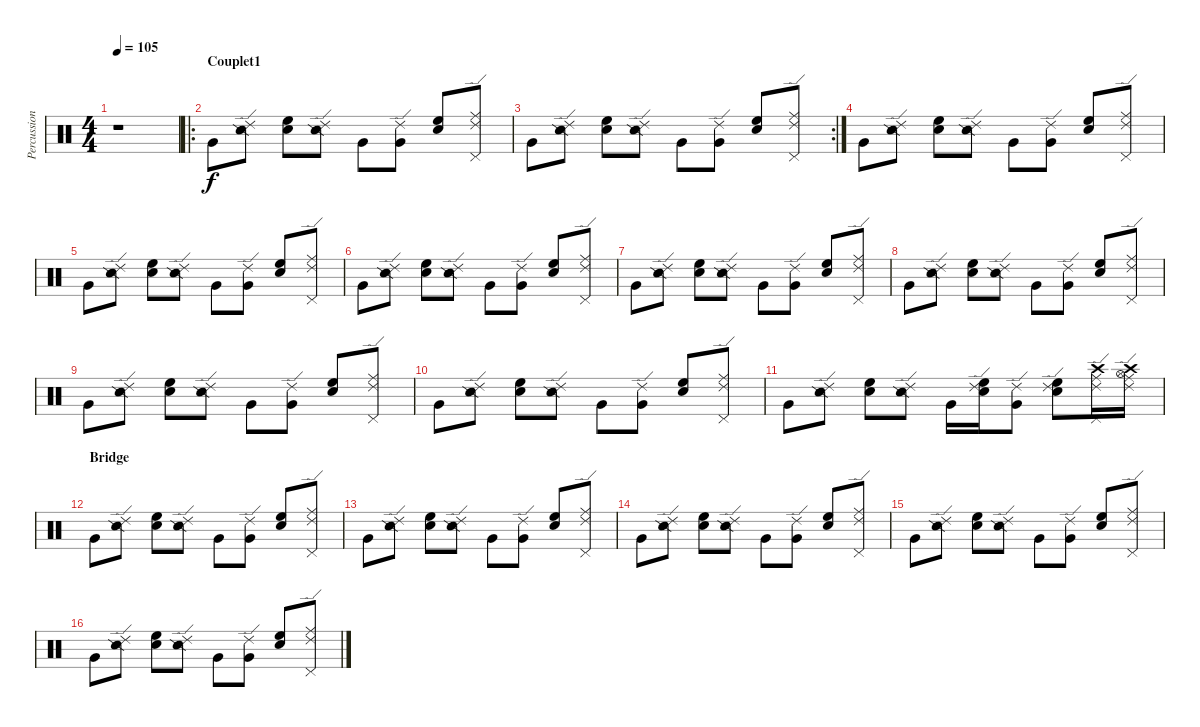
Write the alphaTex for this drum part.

\track ("Percussions" "Percussion") {instrument percussion}
\staff {score}
\articulation defaults
\ts (4 4)
\tempo 105
\clef neutral
\ks c
r.1{dy f} |
\ro
\section ("" "Couplet1")
"Very Low Tom (hit)".8 ("Ride (edge) 2" "Snare (side stick) 2").8 ("Hand Clap (hit)" "High Floor Tom (hit)").8 ("Ride (edge) 2" "Snare (side stick) 2").8 "Very Low Tom (hit)".8 ("Ride (edge) 2" "Very Low Tom (hit)").8 ("Hand Clap (hit)" "High Floor Tom (hit)").8 ("Ride (edge) 2" "Ride (middle)" "Pedal Hi-Hat (hit)").8 |
\rc 2 "Very Low Tom (hit)".8
("Ride (edge) 2" "Snare (side stick) 2").8 ("Hand Clap (hit)" "High Floor Tom (hit)").8 ("Ride (edge) 2" "Snare (side stick) 2").8 "Very Low Tom (hit)".8 ("Ride (edge) 2" "Very Low Tom (hit)").8 ("Hand Clap (hit)" "High Floor Tom (hit)").8 ("Ride (edge) 2" "Ride (middle)" "Pedal Hi-Hat (hit)").8 |
"Very Low Tom (hit)".8 ("Ride (edge) 2" "Snare (side stick) 2").8 ("Hand Clap (hit)" "High Floor Tom (hit)").8 ("Ride (edge) 2" "Snare (side stick) 2").8 "Very Low Tom (hit)".8 ("Ride (edge) 2" "Very Low Tom (hit)").8 ("Hand Clap (hit)" "High Floor Tom (hit)").8 ("Ride (edge) 2" "Ride (middle)" "Pedal Hi-Hat (hit)").8 |
"Very Low Tom (hit)".8 ("Ride (edge) 2" "Snare (side stick) 2").8 ("Hand Clap (hit)" "High Floor Tom (hit)").8 ("Ride (edge) 2" "Snare (side stick) 2").8 "Very Low Tom (hit)".8 ("Ride (edge) 2" "Very Low Tom (hit)").8 ("Hand Clap (hit)" "High Floor Tom (hit)").8 ("Ride (edge) 2" "Ride (middle)" "Pedal Hi-Hat (hit)").8 |
"Very Low Tom (hit)".8 ("Ride (edge) 2" "Snare (side stick) 2").8 ("Hand Clap (hit)" "High Floor Tom (hit)").8 ("Ride (edge) 2" "Snare (side stick) 2").8 "Very Low Tom (hit)".8 ("Ride (edge) 2" "Very Low Tom (hit)").8 ("Hand Clap (hit)" "High Floor Tom (hit)").8 ("Ride (edge) 2" "Ride (middle)" "Pedal Hi-Hat (hit)").8 |
"Very Low Tom (hit)".8 ("Ride (edge) 2" "Snare (side stick) 2").8 ("Hand Clap (hit)" "High Floor Tom (hit)").8 ("Ride (edge) 2" "Snare (side stick) 2").8 "Very Low Tom (hit)".8 ("Ride (edge) 2" "Very Low Tom (hit)").8 ("Hand Clap (hit)" "High Floor Tom (hit)").8 ("Ride (edge) 2" "Ride (middle)" "Pedal Hi-Hat (hit)").8 |
"Very Low Tom (hit)".8 ("Ride (edge) 2" "Snare (side stick) 2").8 ("Hand Clap (hit)" "High Floor Tom (hit)").8 ("Ride (edge) 2" "Snare (side stick) 2").8 "Very Low Tom (hit)".8 ("Ride (edge) 2" "Very Low Tom (hit)").8 ("Hand Clap (hit)" "High Floor Tom (hit)").8 ("Ride (edge) 2" "Ride (middle)" "Pedal Hi-Hat (hit)").8 |
"Very Low Tom (hit)".8 ("Ride (edge) 2" "Snare (side stick) 2").8 ("Hand Clap (hit)" "High Floor Tom (hit)").8 ("Ride (edge) 2" "Snare (side stick) 2").8 "Very Low Tom (hit)".8 ("Ride (edge) 2" "Very Low Tom (hit)").8 ("Hand Clap (hit)" "High Floor Tom (hit)").8 ("Ride (edge) 2" "Ride (middle)" "Pedal Hi-Hat (hit)").8 |
"Very Low Tom (hit)".8 ("Ride (edge) 2" "Snare (side stick) 2").8 ("Hand Clap (hit)" "High Floor Tom (hit)").8 ("Ride (edge) 2" "Snare (side stick) 2").8 "Very Low Tom (hit)".8 ("Ride (edge) 2" "Very Low Tom (hit)").8 ("Hand Clap (hit)" "High Floor Tom (hit)").8 ("Ride (edge) 2" "Ride (middle)" "Pedal Hi-Hat (hit)").8 |
"Very Low Tom (hit)".8 ("Ride (edge) 2" "Snare (side stick) 2").8 ("Hand Clap (hit)" "High Floor Tom (hit)").8 ("Ride (edge) 2" "Snare (side stick) 2").8 "Very Low Tom (hit)".16 ("Ride (edge) 2" "Hand Clap (hit)" "High Floor Tom (hit)").16 ("Ride (edge) 2" "Very Low Tom (hit)").8 ("Ride (edge) 2" "Hand Clap (hit)" "High Floor Tom (hit)").8 ("Ride (edge) 2" "Pedal Hi-Hat (hit)" "Ride (middle)" "Crash high (hit)").16 ("Ride (edge) 2" "Hi-Hat (open)" "Ride (middle)" "Crash high (hit)").16 |
\section ("" "Bridge")
"Very Low Tom (hit)".8 ("Ride (edge) 2" "Snare (side stick) 2").8 ("Hand Clap (hit)" "High Floor Tom (hit)").8 ("Ride (edge) 2" "Snare (side stick) 2").8 "Very Low Tom (hit)".8 ("Ride (edge) 2" "Very Low Tom (hit)").8 ("Hand Clap (hit)" "High Floor Tom (hit)").8 ("Ride (edge) 2" "Ride (middle)" "Pedal Hi-Hat (hit)").8 |
"Very Low Tom (hit)".8 ("Ride (edge) 2" "Snare (side stick) 2").8 ("Hand Clap (hit)" "High Floor Tom (hit)").8 ("Ride (edge) 2" "Snare (side stick) 2").8 "Very Low Tom (hit)".8 ("Ride (edge) 2" "Very Low Tom (hit)").8 ("Hand Clap (hit)" "High Floor Tom (hit)").8 ("Ride (edge) 2" "Ride (middle)" "Pedal Hi-Hat (hit)").8 |
"Very Low Tom (hit)".8 ("Ride (edge) 2" "Snare (side stick) 2").8 ("Hand Clap (hit)" "High Floor Tom (hit)").8 ("Ride (edge) 2" "Snare (side stick) 2").8 "Very Low Tom (hit)".8 ("Ride (edge) 2" "Very Low Tom (hit)").8 ("Hand Clap (hit)" "High Floor Tom (hit)").8 ("Ride (edge) 2" "Ride (middle)" "Pedal Hi-Hat (hit)").8 |
"Very Low Tom (hit)".8 ("Ride (edge) 2" "Snare (side stick) 2").8 ("Hand Clap (hit)" "High Floor Tom (hit)").8 ("Ride (edge) 2" "Snare (side stick) 2").8 "Very Low Tom (hit)".8 ("Ride (edge) 2" "Very Low Tom (hit)").8 ("Hand Clap (hit)" "High Floor Tom (hit)").8 ("Ride (edge) 2" "Ride (middle)" "Pedal Hi-Hat (hit)").8 |
"Very Low Tom (hit)".8 ("Ride (edge) 2" "Snare (side stick) 2").8 ("Hand Clap (hit)" "High Floor Tom (hit)").8 ("Ride (edge) 2" "Snare (side stick) 2").8 "Very Low Tom (hit)".8 ("Ride (edge) 2" "Very Low Tom (hit)").8 ("Hand Clap (hit)" "High Floor Tom (hit)").8 ("Ride (edge) 2" "Ride (middle)" "Pedal Hi-Hat (hit)").8
